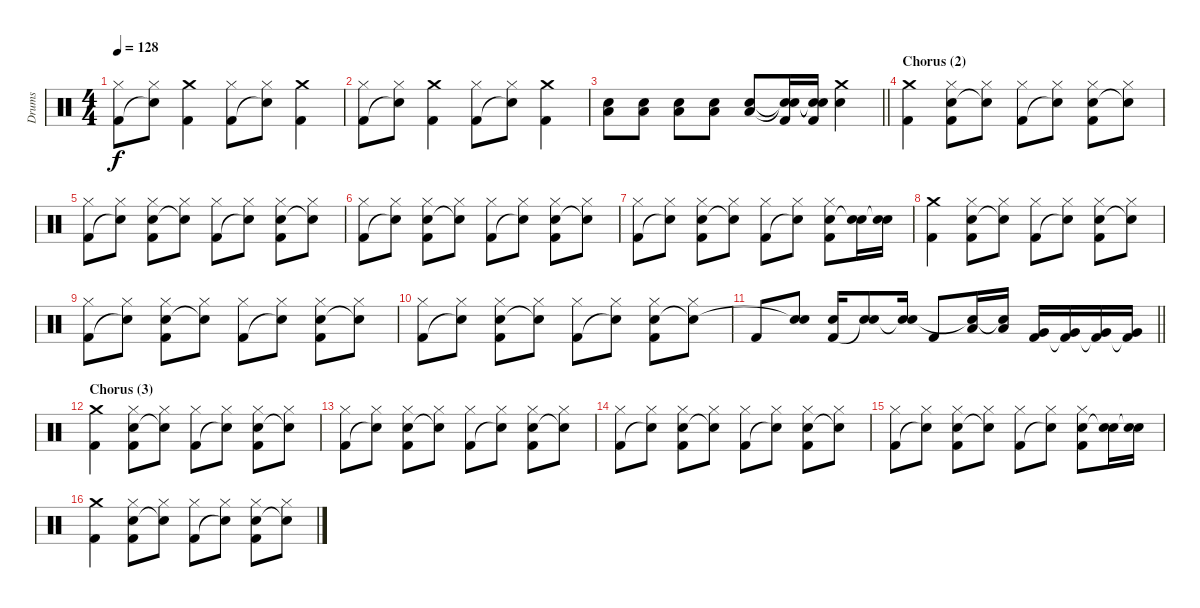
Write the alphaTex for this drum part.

\track ("Drums" "Drums") {instrument percussion}
\staff {score}
\articulation defaults
\ts (4 4)
\tempo 128
\clef neutral
\ks aminor
("Hi-Hat (closed)" "Kick (hit) 2").8{dy f} ("Hi-Hat (closed)" "Snare (hit)"{t}).8 ("Crash medium (hit)" "Kick (hit) 2").4 ("Hi-Hat (closed)" "Kick (hit) 2").8 ("Hi-Hat (closed)" "Snare (hit)"{t}).8 ("Crash medium (hit)" "Kick (hit) 2").4 |
("Hi-Hat (closed)" "Kick (hit) 2").8 ("Hi-Hat (closed)" "Snare (hit)"{t}).8 ("Crash medium (hit)" "Kick (hit) 2").4 ("Hi-Hat (closed)" "Kick (hit) 2").8 ("Hi-Hat (closed)" "Snare (hit)"{t}).8 ("Crash medium (hit)" "Kick (hit) 2").4 |
\barLineRight lightlight
("Electric Snare (hit)" "Low Tom (hit)").8 ("Electric Snare (hit)" "Low Tom (hit)").8 ("Electric Snare (hit)" "Low Tom (hit)").8 ("Electric Snare (hit)" "Low Tom (hit)").8 ("Electric Snare (hit)" "Low Tom (hit)").8 ("Snare (hit)"{t} "Snare (hit)"{t} "Kick (hit) 2").16 ("Snare (hit)"{t} "Snare (hit)"{t} "Kick (hit) 2").16 ("Crash medium (hit)" "Electric Snare (hit)").4 |
\section ("" "Chorus (2)")
("Crash medium (hit)" "Kick (hit) 2").4 ("Hi-Hat (closed)" "Electric Snare (hit)" "Kick (hit) 2").8 ("Hi-Hat (closed)" "Snare (hit)"{t}).8 ("Hi-Hat (closed)" "Kick (hit) 2").8 ("Hi-Hat (closed)" "Snare (hit)"{t}).8 ("Hi-Hat (closed)" "Electric Snare (hit)" "Kick (hit) 2").8 ("Hi-Hat (closed)" "Snare (hit)"{t}).8 |
("Hi-Hat (closed)" "Kick (hit) 2").8 ("Hi-Hat (closed)" "Snare (hit)"{t}).8 ("Hi-Hat (closed)" "Electric Snare (hit)" "Kick (hit) 2").8 ("Hi-Hat (closed)" "Snare (hit)"{t}).8 ("Hi-Hat (closed)" "Kick (hit) 2").8 ("Hi-Hat (closed)" "Snare (hit)"{t}).8 ("Hi-Hat (closed)" "Electric Snare (hit)" "Kick (hit) 2").8 ("Hi-Hat (closed)" "Snare (hit)"{t}).8 |
("Hi-Hat (closed)" "Kick (hit) 2").8 ("Hi-Hat (closed)" "Snare (hit)"{t}).8 ("Hi-Hat (closed)" "Electric Snare (hit)" "Kick (hit) 2").8 ("Hi-Hat (closed)" "Snare (hit)"{t}).8 ("Hi-Hat (closed)" "Kick (hit) 2").8 ("Hi-Hat (closed)" "Snare (hit)"{t}).8 ("Hi-Hat (closed)" "Electric Snare (hit)" "Kick (hit) 2").8 ("Hi-Hat (closed)" "Snare (hit)"{t}).8 |
("Hi-Hat (closed)" "Kick (hit) 2").8 ("Hi-Hat (closed)" "Snare (hit)"{t}).8 ("Hi-Hat (closed)" "Electric Snare (hit)" "Kick (hit) 2").8 ("Hi-Hat (closed)" "Snare (hit)"{t}).8 ("Hi-Hat (closed)" "Kick (hit) 2").8 ("Hi-Hat (closed)" "Snare (hit)"{t}).8 ("Hi-Hat (closed)" "Electric Snare (hit)" "Kick (hit) 2").8 ("Electric Snare (hit)" "Snare (hit)"{t}).16 ("Electric Snare (hit)" "Snare (hit)"{t}).16 |
("Crash medium (hit)" "Kick (hit) 2").4 ("Hi-Hat (closed)" "Electric Snare (hit)" "Kick (hit) 2").8 ("Hi-Hat (closed)" "Snare (hit)"{t}).8 ("Hi-Hat (closed)" "Kick (hit) 2").8 ("Hi-Hat (closed)" "Snare (hit)"{t}).8 ("Hi-Hat (closed)" "Electric Snare (hit)" "Kick (hit) 2").8 ("Hi-Hat (closed)" "Snare (hit)"{t}).8 |
("Hi-Hat (closed)" "Kick (hit) 2").8 ("Hi-Hat (closed)" "Snare (hit)"{t}).8 ("Hi-Hat (closed)" "Electric Snare (hit)" "Kick (hit) 2").8 ("Hi-Hat (closed)" "Snare (hit)"{t}).8 ("Hi-Hat (closed)" "Kick (hit) 2").8 ("Hi-Hat (closed)" "Snare (hit)"{t}).8 ("Hi-Hat (closed)" "Electric Snare (hit)" "Kick (hit) 2").8 ("Hi-Hat (closed)" "Snare (hit)"{t}).8 |
("Hi-Hat (closed)" "Kick (hit) 2").8 ("Hi-Hat (closed)" "Snare (hit)"{t}).8 ("Hi-Hat (closed)" "Electric Snare (hit)" "Kick (hit) 2").8 ("Hi-Hat (closed)" "Snare (hit)"{t}).8 ("Hi-Hat (closed)" "Kick (hit) 2").8 ("Hi-Hat (closed)" "Snare (hit)"{t}).8 ("Hi-Hat (closed)" "Electric Snare (hit)" "Kick (hit) 2").8 ("Hi-Hat (closed)" "Snare (hit)"{t}).8 |
\barLineRight lightlight "Kick (hit) 2".8
("Electric Snare (hit)" "Snare (hit)"{t}).8 ("Electric Snare (hit)" "Kick (hit) 2").16 ("Electric Snare (hit)" "Snare (hit)"{t}).8 ("Electric Snare (hit)" "Snare (hit)"{t}).16 "Kick (hit) 2".8 ("Low Tom (hit)" "Snare (hit)"{t}).16 ("Low Tom (hit)" "Snare (hit)"{t}).16 ("Very Low Tom (hit)" "Kick (hit) 2").16 ("Very Low Tom (hit)" "Kick (hit) 2"{t}).16 ("Very Low Tom (hit)" "Kick (hit) 2"{t}).16 ("Very Low Tom (hit)" "Kick (hit) 2"{t}).16 |
\section ("" "Chorus (3)")
("Crash medium (hit)" "Kick (hit) 2").4 ("Hi-Hat (closed)" "Electric Snare (hit)" "Kick (hit) 2").8 ("Hi-Hat (closed)" "Snare (hit)"{t}).8 ("Hi-Hat (closed)" "Kick (hit) 2").8 ("Hi-Hat (closed)" "Snare (hit)"{t}).8 ("Hi-Hat (closed)" "Electric Snare (hit)" "Kick (hit) 2").8 ("Hi-Hat (closed)" "Snare (hit)"{t}).8 |
("Hi-Hat (closed)" "Kick (hit) 2").8 ("Hi-Hat (closed)" "Snare (hit)"{t}).8 ("Hi-Hat (closed)" "Electric Snare (hit)" "Kick (hit) 2").8 ("Hi-Hat (closed)" "Snare (hit)"{t}).8 ("Hi-Hat (closed)" "Kick (hit) 2").8 ("Hi-Hat (closed)" "Snare (hit)"{t}).8 ("Hi-Hat (closed)" "Electric Snare (hit)" "Kick (hit) 2").8 ("Hi-Hat (closed)" "Snare (hit)"{t}).8 |
("Hi-Hat (closed)" "Kick (hit) 2").8 ("Hi-Hat (closed)" "Snare (hit)"{t}).8 ("Hi-Hat (closed)" "Electric Snare (hit)" "Kick (hit) 2").8 ("Hi-Hat (closed)" "Snare (hit)"{t}).8 ("Hi-Hat (closed)" "Kick (hit) 2").8 ("Hi-Hat (closed)" "Snare (hit)"{t}).8 ("Hi-Hat (closed)" "Electric Snare (hit)" "Kick (hit) 2").8 ("Hi-Hat (closed)" "Snare (hit)"{t}).8 |
("Hi-Hat (closed)" "Kick (hit) 2").8 ("Hi-Hat (closed)" "Snare (hit)"{t}).8 ("Hi-Hat (closed)" "Electric Snare (hit)" "Kick (hit) 2").8 ("Hi-Hat (closed)" "Snare (hit)"{t}).8 ("Hi-Hat (closed)" "Kick (hit) 2").8 ("Hi-Hat (closed)" "Snare (hit)"{t}).8 ("Hi-Hat (closed)" "Electric Snare (hit)" "Kick (hit) 2").8 ("Electric Snare (hit)" "Snare (hit)"{t}).16 ("Electric Snare (hit)" "Snare (hit)"{t}).16 |
("Crash medium (hit)" "Kick (hit) 2").4 ("Hi-Hat (closed)" "Electric Snare (hit)" "Kick (hit) 2").8 ("Hi-Hat (closed)" "Snare (hit)"{t}).8 ("Hi-Hat (closed)" "Kick (hit) 2").8 ("Hi-Hat (closed)" "Snare (hit)"{t}).8 ("Hi-Hat (closed)" "Electric Snare (hit)" "Kick (hit) 2").8 ("Hi-Hat (closed)" "Snare (hit)"{t}).8
